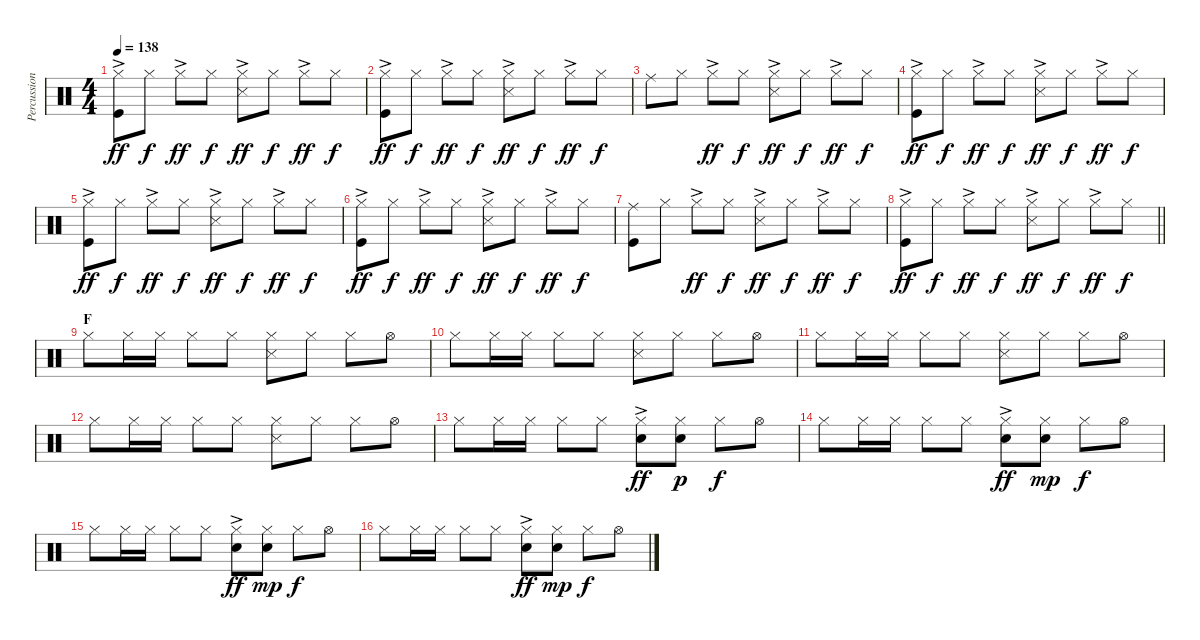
\track ("Percussion" "Percussion") {instrument percussion}
\staff {score}
\articulation defaults
\ts (4 4)
\tempo 138
\clef neutral
\ks c
("Hi-Hat (closed)"{ac} "Kick (hit)").8{dy ff} "Hi-Hat (closed)".8{dy f} "Hi-Hat (closed)"{ac}.8{dy ff} "Hi-Hat (closed)".8{dy f} ("Hi-Hat (closed)"{ac} "Snare (side stick) 3").8{dy ff} "Hi-Hat (closed)".8{dy f} "Hi-Hat (closed)"{ac}.8{dy ff} "Hi-Hat (closed)".8{dy f} |
("Hi-Hat (closed)"{ac} "Kick (hit)").8{dy ff} "Hi-Hat (closed)".8{dy f} "Hi-Hat (closed)"{ac}.8{dy ff} "Hi-Hat (closed)".8{dy f} ("Hi-Hat (closed)"{ac} "Snare (side stick) 3").8{dy ff} "Hi-Hat (closed)".8{dy f} "Hi-Hat (closed)"{ac}.8{dy ff} "Hi-Hat (closed)".8{dy f} |
"Ride (middle)".8 "Hi-Hat (closed)".8 "Hi-Hat (closed)"{ac}.8{dy ff} "Hi-Hat (closed)".8{dy f} ("Hi-Hat (closed)"{ac} "Snare (side stick) 3").8{dy ff} "Hi-Hat (closed)".8{dy f} "Hi-Hat (closed)"{ac}.8{dy ff} "Hi-Hat (closed)".8{dy f} |
("Hi-Hat (closed)"{ac} "Kick (hit)").8{dy ff} "Hi-Hat (closed)".8{dy f} "Hi-Hat (closed)"{ac}.8{dy ff} "Hi-Hat (closed)".8{dy f} ("Hi-Hat (closed)"{ac} "Snare (side stick) 3").8{dy ff} "Hi-Hat (closed)".8{dy f} "Hi-Hat (closed)"{ac}.8{dy ff} "Hi-Hat (closed)".8{dy f} |
("Hi-Hat (closed)"{ac} "Kick (hit)").8{dy ff} "Hi-Hat (closed)".8{dy f} "Hi-Hat (closed)"{ac}.8{dy ff} "Hi-Hat (closed)".8{dy f} ("Hi-Hat (closed)"{ac} "Snare (side stick) 3").8{dy ff} "Hi-Hat (closed)".8{dy f} "Hi-Hat (closed)"{ac}.8{dy ff} "Hi-Hat (closed)".8{dy f} |
("Hi-Hat (closed)"{ac} "Kick (hit)").8{dy ff} "Hi-Hat (closed)".8{dy f} "Hi-Hat (closed)"{ac}.8{dy ff} "Hi-Hat (closed)".8{dy f} ("Hi-Hat (closed)"{ac} "Snare (side stick) 3").8{dy ff} "Hi-Hat (closed)".8{dy f} "Hi-Hat (closed)"{ac}.8{dy ff} "Hi-Hat (closed)".8{dy f} |
("Kick (hit)" "Ride (middle)").8 "Hi-Hat (closed)".8 "Hi-Hat (closed)"{ac}.8{dy ff} "Hi-Hat (closed)".8{dy f} ("Hi-Hat (closed)"{ac} "Snare (side stick) 3").8{dy ff} "Hi-Hat (closed)".8{dy f} "Hi-Hat (closed)"{ac}.8{dy ff} "Hi-Hat (closed)".8{dy f} |
\barLineRight lightlight
("Hi-Hat (closed)"{ac} "Kick (hit)").8{dy ff} "Hi-Hat (closed)".8{dy f} "Hi-Hat (closed)"{ac}.8{dy ff} "Hi-Hat (closed)".8{dy f} ("Hi-Hat (closed)"{ac} "Snare (side stick) 3").8{dy ff} "Hi-Hat (closed)".8{dy f} "Hi-Hat (closed)"{ac}.8{dy ff} "Hi-Hat (closed)".8{dy f} |
\section ("" "F")
"Hi-Hat (closed)".8 "Hi-Hat (closed)".16 "Hi-Hat (closed)".16 "Hi-Hat (closed)".8 "Hi-Hat (closed)".8 ("Hi-Hat (closed)" "Snare (side stick) 3").8 "Hi-Hat (closed)".8 "Hi-Hat (closed)".8 "Hi-Hat (open)".8 |
"Hi-Hat (closed)".8 "Hi-Hat (closed)".16 "Hi-Hat (closed)".16 "Hi-Hat (closed)".8 "Hi-Hat (closed)".8 ("Hi-Hat (closed)" "Snare (side stick) 3").8 "Hi-Hat (closed)".8 "Hi-Hat (closed)".8 "Hi-Hat (open)".8 |
"Hi-Hat (closed)".8 "Hi-Hat (closed)".16 "Hi-Hat (closed)".16 "Hi-Hat (closed)".8 "Hi-Hat (closed)".8 ("Hi-Hat (closed)" "Snare (side stick) 3").8 "Hi-Hat (closed)".8 "Hi-Hat (closed)".8 "Hi-Hat (open)".8 |
"Hi-Hat (closed)".8 "Hi-Hat (closed)".16 "Hi-Hat (closed)".16 "Hi-Hat (closed)".8 "Hi-Hat (closed)".8 ("Hi-Hat (closed)" "Snare (side stick) 3").8 "Hi-Hat (closed)".8 "Hi-Hat (closed)".8 "Hi-Hat (open)".8 |
"Hi-Hat (closed)".8 "Hi-Hat (closed)".16 "Hi-Hat (closed)".16 "Hi-Hat (closed)".8 "Hi-Hat (closed)".8 ("Hi-Hat (closed)" "Snare (hit) 2"{ac}).8{dy ff} ("Hi-Hat (closed)" "Snare (hit) 2").8{dy p} "Hi-Hat (closed)".8{dy f} "Hi-Hat (open)".8 |
"Hi-Hat (closed)".8 "Hi-Hat (closed)".16 "Hi-Hat (closed)".16 "Hi-Hat (closed)".8 "Hi-Hat (closed)".8 ("Hi-Hat (closed)" "Snare (hit) 2"{ac}).8{dy ff} ("Hi-Hat (closed)" "Snare (hit) 2").8{dy mp} "Hi-Hat (closed)".8{dy f} "Hi-Hat (open)".8 |
"Hi-Hat (closed)".8 "Hi-Hat (closed)".16 "Hi-Hat (closed)".16 "Hi-Hat (closed)".8 "Hi-Hat (closed)".8 ("Hi-Hat (closed)" "Snare (hit) 2"{ac}).8{dy ff} ("Hi-Hat (closed)" "Snare (hit) 2").8{dy mp} "Hi-Hat (closed)".8{dy f} "Hi-Hat (open)".8 |
"Hi-Hat (closed)".8 "Hi-Hat (closed)".16 "Hi-Hat (closed)".16 "Hi-Hat (closed)".8 "Hi-Hat (closed)".8 ("Hi-Hat (closed)" "Snare (hit) 2"{ac}).8{dy ff} ("Hi-Hat (closed)" "Snare (hit) 2").8{dy mp} "Hi-Hat (closed)".8{dy f} "Hi-Hat (open)".8
